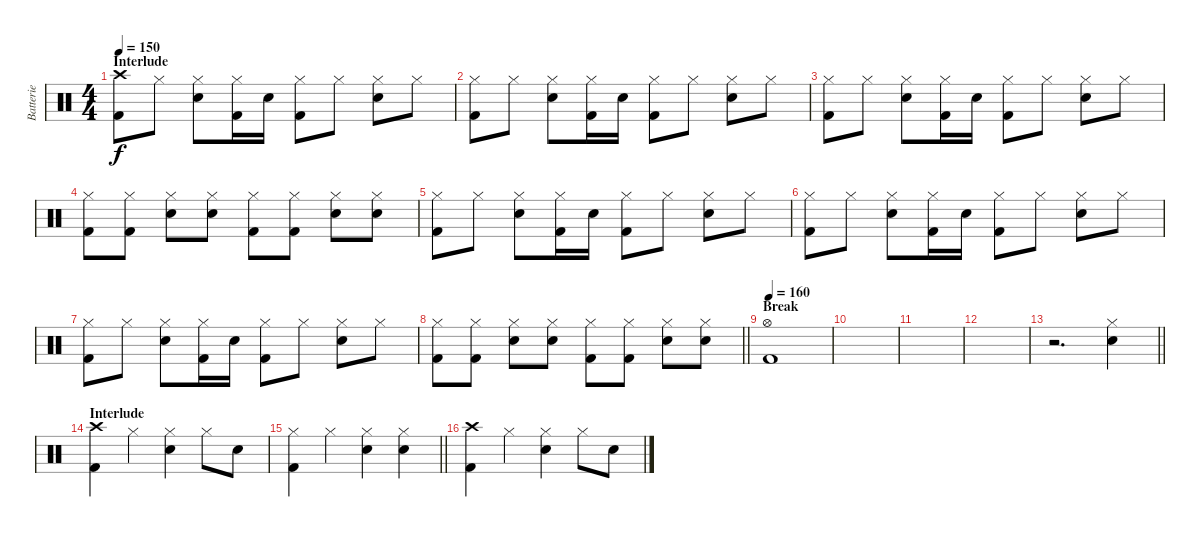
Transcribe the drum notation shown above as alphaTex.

\track ("Batterie" "Batterie") {instrument percussion}
\staff {score}
\articulation defaults
\ts (4 4)
\section ("" "Interlude")
\tempo 150
\clef neutral
\ks c
("Crash high (hit)" "Kick (hit) 2").8{dy f} "Hi-Hat (closed)".8 ("Hi-Hat (closed)" "Electric Snare (hit)").8 ("Hi-Hat (closed)" "Kick (hit) 2").16 "Electric Snare (hit)".16 ("Hi-Hat (closed)" "Kick (hit) 2").8 "Hi-Hat (closed)".8 ("Hi-Hat (closed)" "Electric Snare (hit)").8 "Hi-Hat (closed)".8 |
("Hi-Hat (closed)" "Kick (hit) 2").8 "Hi-Hat (closed)".8 ("Hi-Hat (closed)" "Electric Snare (hit)").8 ("Hi-Hat (closed)" "Kick (hit) 2").16 "Electric Snare (hit)".16 ("Hi-Hat (closed)" "Kick (hit) 2").8 "Hi-Hat (closed)".8 ("Hi-Hat (closed)" "Electric Snare (hit)").8 "Hi-Hat (closed)".8 |
("Hi-Hat (closed)" "Kick (hit) 2").8 "Hi-Hat (closed)".8 ("Hi-Hat (closed)" "Electric Snare (hit)").8 ("Hi-Hat (closed)" "Kick (hit) 2").16 "Electric Snare (hit)".16 ("Hi-Hat (closed)" "Kick (hit) 2").8 "Hi-Hat (closed)".8 ("Hi-Hat (closed)" "Electric Snare (hit)").8 "Hi-Hat (closed)".8 |
("Hi-Hat (closed)" "Kick (hit) 2").8 ("Hi-Hat (closed)" "Kick (hit) 2").8 ("Hi-Hat (closed)" "Electric Snare (hit)").8 ("Hi-Hat (closed)" "Electric Snare (hit)").8 ("Hi-Hat (closed)" "Kick (hit) 2").8 ("Hi-Hat (closed)" "Kick (hit) 2").8 ("Hi-Hat (closed)" "Electric Snare (hit)").8 ("Hi-Hat (closed)" "Electric Snare (hit)").8 |
("Hi-Hat (closed)" "Kick (hit) 2").8 "Hi-Hat (closed)".8 ("Hi-Hat (closed)" "Electric Snare (hit)").8 ("Hi-Hat (closed)" "Kick (hit) 2").16 "Electric Snare (hit)".16 ("Hi-Hat (closed)" "Kick (hit) 2").8 "Hi-Hat (closed)".8 ("Hi-Hat (closed)" "Electric Snare (hit)").8 "Hi-Hat (closed)".8 |
("Hi-Hat (closed)" "Kick (hit) 2").8 "Hi-Hat (closed)".8 ("Hi-Hat (closed)" "Electric Snare (hit)").8 ("Hi-Hat (closed)" "Kick (hit) 2").16 "Electric Snare (hit)".16 ("Hi-Hat (closed)" "Kick (hit) 2").8 "Hi-Hat (closed)".8 ("Hi-Hat (closed)" "Electric Snare (hit)").8 "Hi-Hat (closed)".8 |
("Hi-Hat (closed)" "Kick (hit) 2").8 "Hi-Hat (closed)".8 ("Hi-Hat (closed)" "Electric Snare (hit)").8 ("Hi-Hat (closed)" "Kick (hit) 2").16 "Electric Snare (hit)".16 ("Hi-Hat (closed)" "Kick (hit) 2").8 "Hi-Hat (closed)".8 ("Hi-Hat (closed)" "Electric Snare (hit)").8 "Hi-Hat (closed)".8 |
\barLineRight lightlight
("Hi-Hat (closed)" "Kick (hit) 2").8 ("Hi-Hat (closed)" "Kick (hit) 2").8 ("Hi-Hat (closed)" "Electric Snare (hit)").8 ("Hi-Hat (closed)" "Electric Snare (hit)").8 ("Hi-Hat (closed)" "Kick (hit) 2").8 ("Hi-Hat (closed)" "Kick (hit) 2").8 ("Hi-Hat (closed)" "Electric Snare (hit)").8 ("Hi-Hat (closed)" "Electric Snare (hit)").8 |
\section ("" "Break")
\tempo 160
("Hi-Hat (open)" "Kick (hit) 2").1 |
|
|
|
\barLineRight lightlight
r.2{d} ("Hi-Hat (closed)" "Electric Snare (hit)").4 |
\section ("" "Interlude")
("Crash high (hit)" "Kick (hit) 2").4 "Hi-Hat (closed)".4 ("Hi-Hat (closed)" "Electric Snare (hit)").4 "Hi-Hat (closed)".8 "Electric Snare (hit)".8 |
\barLineRight lightlight
("Hi-Hat (closed)" "Kick (hit) 2").4 "Hi-Hat (closed)".4 ("Hi-Hat (closed)" "Electric Snare (hit)").4 ("Hi-Hat (closed)" "Electric Snare (hit)").4 |
("Crash high (hit)" "Kick (hit) 2").4 "Hi-Hat (closed)".4 ("Hi-Hat (closed)" "Electric Snare (hit)").4 "Hi-Hat (closed)".8 "Electric Snare (hit)".8
